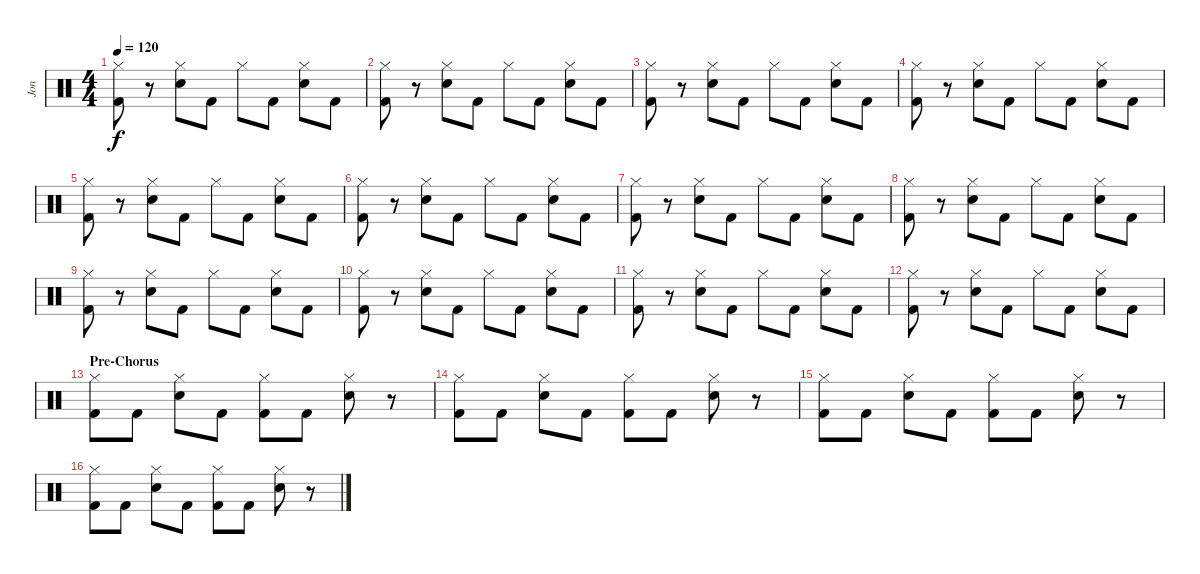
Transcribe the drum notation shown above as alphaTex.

\track ("Jon" "Jon") {instrument percussion}
\staff {score}
\articulation defaults
\ts (4 4)
\tempo 120
\clef neutral
\ks c
("Hi-Hat (closed)" "Kick (hit) 2").8{dy f} r.8 ("Hi-Hat (closed)" "Electric Snare (hit)").8 "Kick (hit) 2".8 "Hi-Hat (closed)".8 "Kick (hit) 2".8 ("Hi-Hat (closed)" "Electric Snare (hit)").8 "Kick (hit) 2".8 |
("Hi-Hat (closed)" "Kick (hit) 2").8 r.8 ("Hi-Hat (closed)" "Electric Snare (hit)").8 "Kick (hit) 2".8 "Hi-Hat (closed)".8 "Kick (hit) 2".8 ("Hi-Hat (closed)" "Electric Snare (hit)").8 "Kick (hit) 2".8 |
("Hi-Hat (closed)" "Kick (hit) 2").8 r.8 ("Hi-Hat (closed)" "Electric Snare (hit)").8 "Kick (hit) 2".8 "Hi-Hat (closed)".8 "Kick (hit) 2".8 ("Hi-Hat (closed)" "Electric Snare (hit)").8 "Kick (hit) 2".8 |
("Hi-Hat (closed)" "Kick (hit) 2").8 r.8 ("Hi-Hat (closed)" "Electric Snare (hit)").8 "Kick (hit) 2".8 "Hi-Hat (closed)".8 "Kick (hit) 2".8 ("Hi-Hat (closed)" "Electric Snare (hit)").8 "Kick (hit) 2".8 |
("Hi-Hat (closed)" "Kick (hit) 2").8 r.8 ("Hi-Hat (closed)" "Electric Snare (hit)").8 "Kick (hit) 2".8 "Hi-Hat (closed)".8 "Kick (hit) 2".8 ("Hi-Hat (closed)" "Electric Snare (hit)").8 "Kick (hit) 2".8 |
("Hi-Hat (closed)" "Kick (hit) 2").8 r.8 ("Hi-Hat (closed)" "Electric Snare (hit)").8 "Kick (hit) 2".8 "Hi-Hat (closed)".8 "Kick (hit) 2".8 ("Hi-Hat (closed)" "Electric Snare (hit)").8 "Kick (hit) 2".8 |
("Hi-Hat (closed)" "Kick (hit) 2").8 r.8 ("Hi-Hat (closed)" "Electric Snare (hit)").8 "Kick (hit) 2".8 "Hi-Hat (closed)".8 "Kick (hit) 2".8 ("Hi-Hat (closed)" "Electric Snare (hit)").8 "Kick (hit) 2".8 |
("Hi-Hat (closed)" "Kick (hit) 2").8 r.8 ("Hi-Hat (closed)" "Electric Snare (hit)").8 "Kick (hit) 2".8 "Hi-Hat (closed)".8 "Kick (hit) 2".8 ("Hi-Hat (closed)" "Electric Snare (hit)").8 "Kick (hit) 2".8 |
("Hi-Hat (closed)" "Kick (hit) 2").8 r.8 ("Hi-Hat (closed)" "Electric Snare (hit)").8 "Kick (hit) 2".8 "Hi-Hat (closed)".8 "Kick (hit) 2".8 ("Hi-Hat (closed)" "Electric Snare (hit)").8 "Kick (hit) 2".8 |
("Hi-Hat (closed)" "Kick (hit) 2").8 r.8 ("Hi-Hat (closed)" "Electric Snare (hit)").8 "Kick (hit) 2".8 "Hi-Hat (closed)".8 "Kick (hit) 2".8 ("Hi-Hat (closed)" "Electric Snare (hit)").8 "Kick (hit) 2".8 |
("Hi-Hat (closed)" "Kick (hit) 2").8 r.8 ("Hi-Hat (closed)" "Electric Snare (hit)").8 "Kick (hit) 2".8 "Hi-Hat (closed)".8 "Kick (hit) 2".8 ("Hi-Hat (closed)" "Electric Snare (hit)").8 "Kick (hit) 2".8 |
("Hi-Hat (closed)" "Kick (hit) 2").8 r.8 ("Hi-Hat (closed)" "Electric Snare (hit)").8 "Kick (hit) 2".8 "Hi-Hat (closed)".8 "Kick (hit) 2".8 ("Hi-Hat (closed)" "Electric Snare (hit)").8 "Kick (hit) 2".8 |
\section ("" "Pre-Chorus")
("Hi-Hat (closed)" "Kick (hit) 2").8 "Kick (hit) 2".8 ("Hi-Hat (closed)" "Electric Snare (hit)").8 "Kick (hit) 2".8 ("Hi-Hat (closed)" "Kick (hit) 2").8 "Kick (hit) 2".8 ("Hi-Hat (closed)" "Electric Snare (hit)").8 r.8 |
("Hi-Hat (closed)" "Kick (hit) 2").8 "Kick (hit) 2".8 ("Hi-Hat (closed)" "Electric Snare (hit)").8 "Kick (hit) 2".8 ("Hi-Hat (closed)" "Kick (hit) 2").8 "Kick (hit) 2".8 ("Hi-Hat (closed)" "Electric Snare (hit)").8 r.8 |
("Hi-Hat (closed)" "Kick (hit) 2").8 "Kick (hit) 2".8 ("Hi-Hat (closed)" "Electric Snare (hit)").8 "Kick (hit) 2".8 ("Hi-Hat (closed)" "Kick (hit) 2").8 "Kick (hit) 2".8 ("Hi-Hat (closed)" "Electric Snare (hit)").8 r.8 |
("Hi-Hat (closed)" "Kick (hit) 2").8 "Kick (hit) 2".8 ("Hi-Hat (closed)" "Electric Snare (hit)").8 "Kick (hit) 2".8 ("Hi-Hat (closed)" "Kick (hit) 2").8 "Kick (hit) 2".8 ("Hi-Hat (closed)" "Electric Snare (hit)").8 r.8
